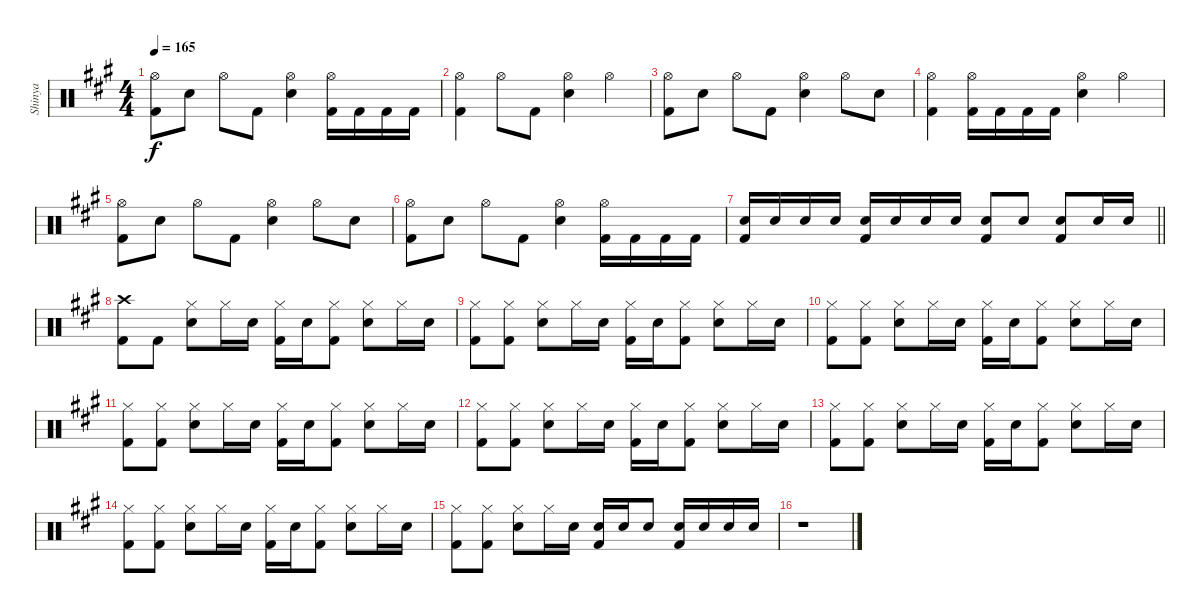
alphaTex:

\track ("Shinya" "Shinya") {instrument percussion}
\staff {score}
\articulation defaults
\ts (4 4)
\tempo 165
\clef neutral
\ks a
("Hi-Hat (open)" "Kick (hit) 2").8{dy f} "Snare (hit) 2".8 "Hi-Hat (open)".8 "Kick (hit) 2".8 ("Hi-Hat (open)" "Snare (hit) 2").4 ("Hi-Hat (open)" "Kick (hit) 2").16 "Kick (hit) 2".16 "Kick (hit) 2".16 "Kick (hit) 2".16 |
("Hi-Hat (open)" "Kick (hit) 2").4 "Hi-Hat (open)".8 "Kick (hit) 2".8 ("Hi-Hat (open)" "Snare (hit) 2").4 "Hi-Hat (open)".4 |
("Hi-Hat (open)" "Kick (hit) 2").8 "Snare (hit) 2".8 "Hi-Hat (open)".8 "Kick (hit) 2".8 ("Hi-Hat (open)" "Snare (hit) 2").4 "Hi-Hat (open)".8 "Snare (hit) 2".8 |
("Hi-Hat (open)" "Kick (hit) 2").4 ("Hi-Hat (open)" "Kick (hit) 2").16 "Kick (hit) 2".16 "Kick (hit) 2".16 "Kick (hit) 2".16 ("Hi-Hat (open)" "Snare (hit) 2").4 "Hi-Hat (open)".4 |
("Hi-Hat (open)" "Kick (hit) 2").8 "Snare (hit) 2".8 "Hi-Hat (open)".8 "Kick (hit) 2".8 ("Hi-Hat (open)" "Snare (hit) 2").4 "Hi-Hat (open)".8 "Snare (hit) 2".8 |
("Hi-Hat (open)" "Kick (hit) 2").8 "Snare (hit) 2".8 "Hi-Hat (open)".8 "Kick (hit) 2".8 ("Hi-Hat (open)" "Snare (hit) 2").4 ("Hi-Hat (open)" "Kick (hit) 2").16 "Kick (hit) 2".16 "Kick (hit) 2".16 "Kick (hit) 2".16 |
\barLineRight lightlight
("Snare (hit) 2" "Kick (hit) 2").16 "Snare (hit) 2".16 "Snare (hit) 2".16 "Snare (hit) 2".16 ("Snare (hit) 2" "Kick (hit) 2").16 "Snare (hit) 2".16 "Snare (hit) 2".16 "Snare (hit) 2".16 ("Snare (hit) 2" "Kick (hit) 2").8 "Snare (hit) 2".8 ("Snare (hit) 2" "Kick (hit) 2").8 "Snare (hit) 2".16 "Snare (hit) 2".16 |
("Crash high (hit)" "Kick (hit) 2").8 "Kick (hit) 2".8 ("Hi-Hat (closed)" "Snare (hit) 2").8 "Hi-Hat (closed)".16 "Snare (hit) 2".16 ("Hi-Hat (closed)" "Kick (hit) 2").16 "Snare (hit) 2".16 ("Hi-Hat (closed)" "Kick (hit) 2").8 ("Hi-Hat (closed)" "Snare (hit) 2").8 "Hi-Hat (closed)".16 "Snare (hit) 2".16 |
("Hi-Hat (closed)" "Kick (hit) 2").8 ("Hi-Hat (closed)" "Kick (hit) 2").8 ("Hi-Hat (closed)" "Snare (hit) 2").8 "Hi-Hat (closed)".16 "Snare (hit) 2".16 ("Hi-Hat (closed)" "Kick (hit) 2").16 "Snare (hit) 2".16 ("Hi-Hat (closed)" "Kick (hit) 2").8 ("Hi-Hat (closed)" "Snare (hit) 2").8 "Hi-Hat (closed)".16 "Snare (hit) 2".16 |
("Hi-Hat (closed)" "Kick (hit) 2").8 ("Hi-Hat (closed)" "Kick (hit) 2").8 ("Hi-Hat (closed)" "Snare (hit) 2").8 "Hi-Hat (closed)".16 "Snare (hit) 2".16 ("Hi-Hat (closed)" "Kick (hit) 2").16 "Snare (hit) 2".16 ("Hi-Hat (closed)" "Kick (hit) 2").8 ("Hi-Hat (closed)" "Snare (hit) 2").8 "Hi-Hat (closed)".16 "Snare (hit) 2".16 |
("Hi-Hat (closed)" "Kick (hit) 2").8 ("Hi-Hat (closed)" "Kick (hit) 2").8 ("Hi-Hat (closed)" "Snare (hit) 2").8 "Hi-Hat (closed)".16 "Snare (hit) 2".16 ("Hi-Hat (closed)" "Kick (hit) 2").16 "Snare (hit) 2".16 ("Hi-Hat (closed)" "Kick (hit) 2").8 ("Hi-Hat (closed)" "Snare (hit) 2").8 "Hi-Hat (closed)".16 "Snare (hit) 2".16 |
("Hi-Hat (closed)" "Kick (hit) 2").8 ("Hi-Hat (closed)" "Kick (hit) 2").8 ("Hi-Hat (closed)" "Snare (hit) 2").8 "Hi-Hat (closed)".16 "Snare (hit) 2".16 ("Hi-Hat (closed)" "Kick (hit) 2").16 "Snare (hit) 2".16 ("Hi-Hat (closed)" "Kick (hit) 2").8 ("Hi-Hat (closed)" "Snare (hit) 2").8 "Hi-Hat (closed)".16 "Snare (hit) 2".16 |
("Hi-Hat (closed)" "Kick (hit) 2").8 ("Hi-Hat (closed)" "Kick (hit) 2").8 ("Hi-Hat (closed)" "Snare (hit) 2").8 "Hi-Hat (closed)".16 "Snare (hit) 2".16 ("Hi-Hat (closed)" "Kick (hit) 2").16 "Snare (hit) 2".16 ("Hi-Hat (closed)" "Kick (hit) 2").8 ("Hi-Hat (closed)" "Snare (hit) 2").8 "Hi-Hat (closed)".16 "Snare (hit) 2".16 |
("Hi-Hat (closed)" "Kick (hit) 2").8 ("Hi-Hat (closed)" "Kick (hit) 2").8 ("Hi-Hat (closed)" "Snare (hit) 2").8 "Hi-Hat (closed)".16 "Snare (hit) 2".16 ("Hi-Hat (closed)" "Kick (hit) 2").16 "Snare (hit) 2".16 ("Hi-Hat (closed)" "Kick (hit) 2").8 ("Hi-Hat (closed)" "Snare (hit) 2").8 "Hi-Hat (closed)".16 "Snare (hit) 2".16 |
("Hi-Hat (closed)" "Kick (hit) 2").8 ("Hi-Hat (closed)" "Kick (hit) 2").8 ("Hi-Hat (closed)" "Snare (hit) 2").8 "Hi-Hat (closed)".16 "Snare (hit) 2".16 ("Snare (hit) 2" "Kick (hit) 2").16 "Snare (hit) 2".16 "Snare (hit) 2".8 ("Snare (hit) 2" "Kick (hit) 2").16 "Snare (hit) 2".16 "Snare (hit) 2".16 "Snare (hit) 2".16 |
r.1
